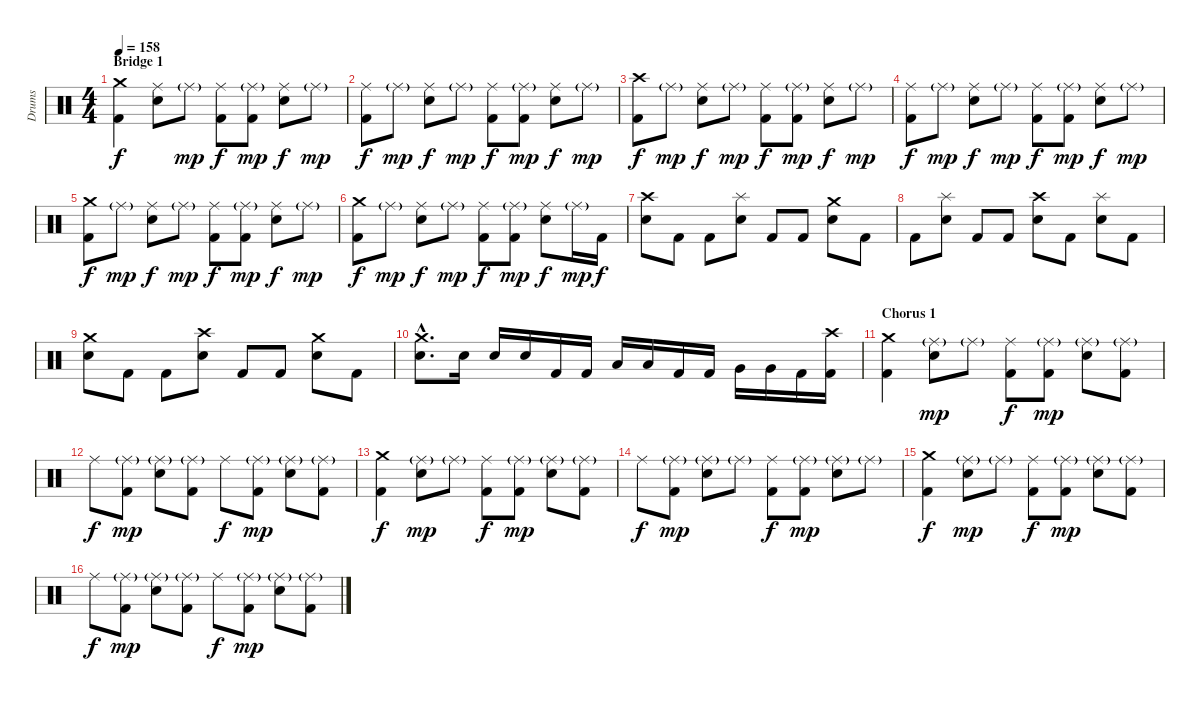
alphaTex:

\track ("Drums" "Drums") {instrument percussion}
\staff {score}
\articulation defaults
\ts (4 4)
\section ("" "Bridge 1")
\tempo 158
\clef neutral
\ks c
("Crash medium (hit)" "Kick (hit) 2").4{dy f} ("Ride (middle)" "Snare (hit) 2").8 "Ride (middle)"{g}.8{dy mp} ("Ride (middle)" "Kick (hit) 2").8{dy f} ("Ride (middle)"{g} "Kick (hit) 2").8{dy mp} ("Ride (middle)" "Snare (hit) 2").8{dy f} "Ride (middle)"{g}.8{dy mp} |
("Ride (middle)" "Kick (hit) 2").8{dy f} "Ride (middle)"{g}.8{dy mp} ("Ride (middle)" "Snare (hit) 2").8{dy f} "Ride (middle)"{g}.8{dy mp} ("Ride (middle)" "Kick (hit) 2").8{dy f} ("Ride (middle)"{g} "Kick (hit) 2").8{dy mp} ("Ride (middle)" "Snare (hit) 2").8{dy f} "Ride (middle)"{g}.8{dy mp} |
("Crash high (hit)" "Kick (hit) 2").8{dy f} "Ride (middle)"{g}.8{dy mp} ("Ride (middle)" "Snare (hit) 2").8{dy f} "Ride (middle)"{g}.8{dy mp} ("Ride (middle)" "Kick (hit) 2").8{dy f} ("Ride (middle)"{g} "Kick (hit) 2").8{dy mp} ("Ride (middle)" "Snare (hit) 2").8{dy f} "Ride (middle)"{g}.8{dy mp} |
("Ride (middle)" "Kick (hit) 2").8{dy f} "Ride (middle)"{g}.8{dy mp} ("Ride (middle)" "Snare (hit) 2").8{dy f} "Ride (middle)"{g}.8{dy mp} ("Ride (middle)" "Kick (hit) 2").8{dy f} ("Ride (middle)"{g} "Kick (hit) 2").8{dy mp} ("Ride (middle)" "Snare (hit) 2").8{dy f} "Ride (middle)"{g}.8{dy mp} |
("Crash medium (hit)" "Kick (hit) 2").8{dy f} "Ride (middle)"{g}.8{dy mp} ("Ride (middle)" "Snare (hit) 2").8{dy f} "Ride (middle)"{g}.8{dy mp} ("Ride (middle)" "Kick (hit) 2").8{dy f} ("Ride (middle)"{g} "Kick (hit) 2").8{dy mp} ("Ride (middle)" "Snare (hit) 2").8{dy f} "Ride (middle)"{g}.8{dy mp} |
("Crash medium (hit)" "Kick (hit) 2").8{dy f} "Ride (middle)"{g}.8{dy mp} ("Ride (middle)" "Snare (hit) 2").8{dy f} "Ride (middle)"{g}.8{dy mp} ("Ride (middle)" "Kick (hit) 2").8{dy f} ("Ride (middle)"{g} "Kick (hit) 2").8{dy mp} ("Ride (middle)" "Snare (hit) 2").8{dy f} "Ride (middle)"{g}.16{dy mp} "Kick (hit) 2".16{dy f} |
("Crash high (hit)" "Snare (hit) 2").8 "Kick (hit) 2".8 "Kick (hit) 2".8 ("Splash (hit)" "Snare (hit) 2").8 "Kick (hit) 2".8 "Kick (hit) 2".8 ("Crash medium (hit)" "Snare (hit) 2").8 "Kick (hit) 2".8 |
"Kick (hit) 2".8 ("Splash (hit)" "Snare (hit) 2").8 "Kick (hit) 2".8 "Kick (hit) 2".8 ("Crash high (hit)" "Snare (hit) 2").8 "Kick (hit) 2".8 ("Splash (hit)" "Snare (hit) 2").8 "Kick (hit) 2".8 |
("Crash medium (hit)" "Snare (hit) 2").8 "Kick (hit) 2".8 "Kick (hit) 2".8 ("Crash high (hit)" "Snare (hit) 2").8 "Kick (hit) 2".8 "Kick (hit) 2".8 ("Crash medium (hit)" "Snare (hit) 2").8 "Kick (hit) 2".8 |
("Crash medium (hit)"{hac} "Snare (hit) 2"{hac}).8{d} "Snare (hit) 2".16 "Snare (hit) 2".16 "Snare (hit) 2".16 "Kick (hit) 2".16 "Kick (hit) 2".16 "Low Tom (hit)".16 "Low Tom (hit)".16 "Kick (hit) 2".16 "Kick (hit) 2".16 "Very Low Tom (hit)".16 "Very Low Tom (hit)".16 "Kick (hit) 2".16 ("Crash high (hit)" "Kick (hit) 2").16 |
\section ("" "Chorus 1")
("Crash medium (hit)" "Kick (hit) 2").4 ("Ride (middle)"{g} "Snare (hit) 2").8{dy mp} "Ride (middle)"{g}.8 ("Ride (middle)" "Kick (hit) 2").8{dy f} ("Ride (middle)"{g} "Kick (hit) 2").8{dy mp} ("Ride (middle)"{g} "Snare (hit) 2").8 ("Ride (middle)"{g} "Kick (hit) 2").8 |
"Ride (middle)".8{dy f} ("Ride (middle)"{g} "Kick (hit) 2").8{dy mp} ("Ride (middle)"{g} "Snare (hit) 2").8 ("Ride (middle)"{g} "Kick (hit) 2").8 "Ride (middle)".8{dy f} ("Ride (middle)"{g} "Kick (hit) 2").8{dy mp} ("Ride (middle)"{g} "Snare (hit) 2").8 ("Ride (middle)"{g} "Kick (hit) 2").8 |
("Crash medium (hit)" "Kick (hit) 2").4{dy f} ("Ride (middle)"{g} "Snare (hit) 2").8{dy mp} "Ride (middle)"{g}.8 ("Ride (middle)" "Kick (hit) 2").8{dy f} ("Ride (middle)"{g} "Kick (hit) 2").8{dy mp} ("Ride (middle)"{g} "Snare (hit) 2").8 ("Ride (middle)"{g} "Kick (hit) 2").8 |
"Ride (middle)".8{dy f} ("Ride (middle)"{g} "Kick (hit) 2").8{dy mp} ("Ride (middle)"{g} "Snare (hit) 2").8 "Ride (middle)"{g}.8 ("Ride (middle)" "Kick (hit) 2").8{dy f} ("Ride (middle)"{g} "Kick (hit) 2").8{dy mp} ("Ride (middle)"{g} "Snare (hit) 2").8 "Ride (middle)"{g}.8 |
("Crash medium (hit)" "Kick (hit) 2").4{dy f} ("Ride (middle)"{g} "Snare (hit) 2").8{dy mp} "Ride (middle)"{g}.8 ("Ride (middle)" "Kick (hit) 2").8{dy f} ("Ride (middle)"{g} "Kick (hit) 2").8{dy mp} ("Ride (middle)"{g} "Snare (hit) 2").8 ("Ride (middle)"{g} "Kick (hit) 2").8 |
"Ride (middle)".8{dy f} ("Ride (middle)"{g} "Kick (hit) 2").8{dy mp} ("Ride (middle)"{g} "Snare (hit) 2").8 ("Ride (middle)"{g} "Kick (hit) 2").8 "Ride (middle)".8{dy f} ("Ride (middle)"{g} "Kick (hit) 2").8{dy mp} ("Ride (middle)"{g} "Snare (hit) 2").8 ("Ride (middle)"{g} "Kick (hit) 2").8
